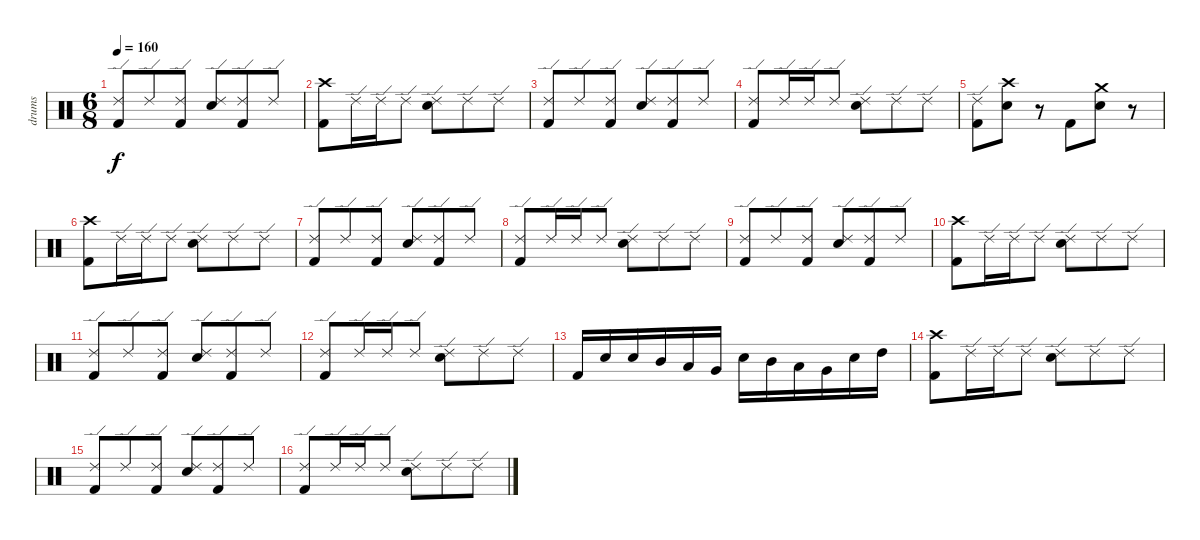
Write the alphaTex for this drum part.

\track ("drums" "drums") {instrument percussion}
\staff {score}
\articulation defaults
\ts (6 8)
\tempo 160
\clef neutral
\ks c
("Kick (hit) 2" "Ride (edge) 2").8{dy f} "Ride (edge) 2".8 ("Kick (hit) 2" "Ride (edge) 2").8 ("Electric Snare (hit)" "Ride (edge) 2").8 ("Kick (hit) 2" "Ride (edge) 2").8 "Ride (edge) 2".8 |
("Kick (hit) 2" "Crash high (hit)").8 "Ride (edge) 2".16 "Ride (edge) 2".16 "Ride (edge) 2".8 ("Electric Snare (hit)" "Ride (edge) 2").8 "Ride (edge) 2".8 "Ride (edge) 2".8 |
("Kick (hit) 2" "Ride (edge) 2").8 "Ride (edge) 2".8 ("Kick (hit) 2" "Ride (edge) 2").8 ("Electric Snare (hit)" "Ride (edge) 2").8 ("Kick (hit) 2" "Ride (edge) 2").8 "Ride (edge) 2".8 |
("Ride (edge) 2" "Kick (hit) 2").8 "Ride (edge) 2".16 "Ride (edge) 2".16 "Ride (edge) 2".8 ("Electric Snare (hit)" "Ride (edge) 2").8 "Ride (edge) 2".8 "Ride (edge) 2".8 |
("Kick (hit) 2" "Ride (edge) 2").8 ("Crash high (hit)" "Electric Snare (hit)").8 r.8 "Kick (hit) 2".8 ("Crash medium (hit)" "Electric Snare (hit)").8 r.8 |
("Kick (hit) 2" "Crash high (hit)").8 "Ride (edge) 2".16 "Ride (edge) 2".16 "Ride (edge) 2".8 ("Electric Snare (hit)" "Ride (edge) 2").8 "Ride (edge) 2".8 "Ride (edge) 2".8 |
("Kick (hit) 2" "Ride (edge) 2").8 "Ride (edge) 2".8 ("Kick (hit) 2" "Ride (edge) 2").8 ("Electric Snare (hit)" "Ride (edge) 2").8 ("Kick (hit) 2" "Ride (edge) 2").8 "Ride (edge) 2".8 |
("Ride (edge) 2" "Kick (hit) 2").8 "Ride (edge) 2".16 "Ride (edge) 2".16 "Ride (edge) 2".8 ("Electric Snare (hit)" "Ride (edge) 2").8 "Ride (edge) 2".8 "Ride (edge) 2".8 |
("Kick (hit) 2" "Ride (edge) 2").8 "Ride (edge) 2".8 ("Kick (hit) 2" "Ride (edge) 2").8 ("Electric Snare (hit)" "Ride (edge) 2").8 ("Kick (hit) 2" "Ride (edge) 2").8 "Ride (edge) 2".8 |
("Kick (hit) 2" "Crash high (hit)").8 "Ride (edge) 2".16 "Ride (edge) 2".16 "Ride (edge) 2".8 ("Electric Snare (hit)" "Ride (edge) 2").8 "Ride (edge) 2".8 "Ride (edge) 2".8 |
("Kick (hit) 2" "Ride (edge) 2").8 "Ride (edge) 2".8 ("Kick (hit) 2" "Ride (edge) 2").8 ("Electric Snare (hit)" "Ride (edge) 2").8 ("Kick (hit) 2" "Ride (edge) 2").8 "Ride (edge) 2".8 |
("Ride (edge) 2" "Kick (hit) 2").8 "Ride (edge) 2".16 "Ride (edge) 2".16 "Ride (edge) 2".8 ("Electric Snare (hit)" "Ride (edge) 2").8 "Ride (edge) 2".8 "Ride (edge) 2".8 |
"Kick (hit) 2".16 "Electric Snare (hit)".16 "Electric Snare (hit)".16 "Mid Tom (hit)".16 "Low Tom (hit)".16 "Very Low Tom (hit)".16 "Electric Snare (hit)".16 "Mid Tom (hit)".16 "Low Tom (hit)".16 "Very Low Tom (hit)".16 "Electric Snare (hit)".16 "High Tom (hit)".16 |
("Kick (hit) 2" "Crash high (hit)").8 "Ride (edge) 2".16 "Ride (edge) 2".16 "Ride (edge) 2".8 ("Electric Snare (hit)" "Ride (edge) 2").8 "Ride (edge) 2".8 "Ride (edge) 2".8 |
("Kick (hit) 2" "Ride (edge) 2").8 "Ride (edge) 2".8 ("Kick (hit) 2" "Ride (edge) 2").8 ("Electric Snare (hit)" "Ride (edge) 2").8 ("Kick (hit) 2" "Ride (edge) 2").8 "Ride (edge) 2".8 |
("Ride (edge) 2" "Kick (hit) 2").8 "Ride (edge) 2".16 "Ride (edge) 2".16 "Ride (edge) 2".8 ("Electric Snare (hit)" "Ride (edge) 2").8 "Ride (edge) 2".8 "Ride (edge) 2".8
